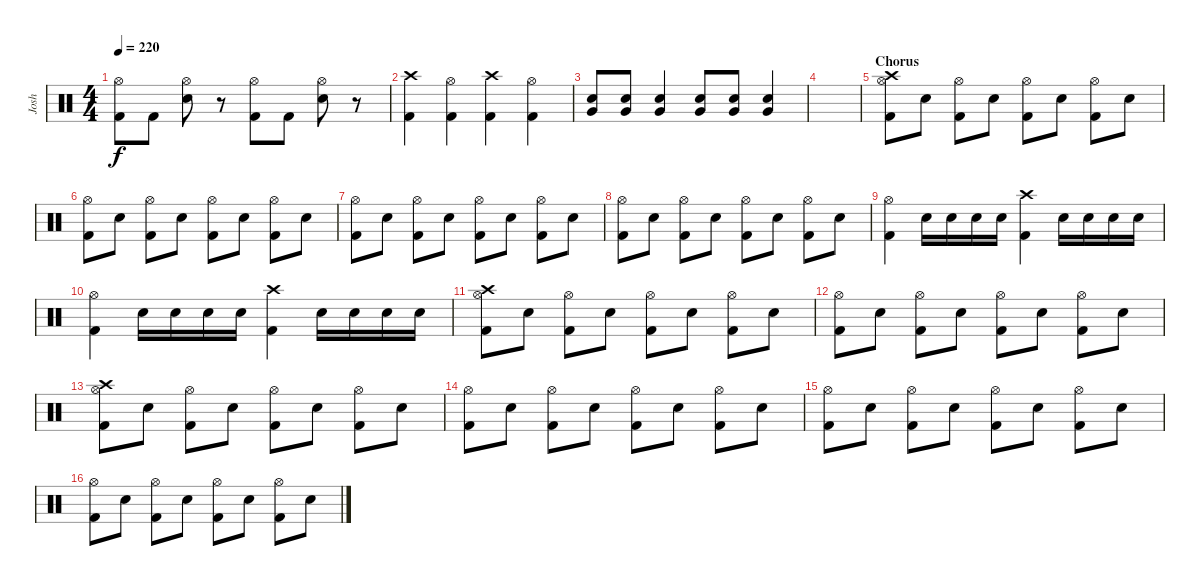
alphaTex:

\track ("Josh" "Josh") {instrument percussion}
\staff {score}
\articulation defaults
\ts (4 4)
\tempo 220
\clef neutral
\ks c
("Hi-Hat (open)" "Kick (hit) 2").8{dy f} "Kick (hit) 2".8 ("Hi-Hat (open)" "Snare (hit) 2").8 r.8 ("Hi-Hat (open)" "Kick (hit) 2").8 "Kick (hit) 2".8 ("Hi-Hat (open)" "Snare (hit) 2").8 r.8 |
("Crash high (hit)" "Kick (hit) 2").4 ("Hi-Hat (open)" "Kick (hit) 2").4 ("Crash high (hit)" "Kick (hit) 2").4 ("Hi-Hat (open)" "Kick (hit) 2").4 |
("Snare (hit) 2" "Very Low Tom (hit)").8 ("Snare (hit) 2" "Very Low Tom (hit)").8 ("Snare (hit) 2" "Very Low Tom (hit)").4 ("Snare (hit) 2" "Very Low Tom (hit)").8 ("Snare (hit) 2" "Very Low Tom (hit)").8 ("Snare (hit) 2" "Very Low Tom (hit)").4 |
|
\section ("" "Chorus")
("Crash high (hit)" "Hi-Hat (open)" "Kick (hit) 2").8 "Snare (hit) 2".8 ("Hi-Hat (open)" "Kick (hit) 2").8 "Snare (hit) 2".8 ("Hi-Hat (open)" "Kick (hit) 2").8 "Snare (hit) 2".8 ("Hi-Hat (open)" "Kick (hit) 2").8 "Snare (hit) 2".8 |
("Hi-Hat (open)" "Kick (hit) 2").8 "Snare (hit) 2".8 ("Hi-Hat (open)" "Kick (hit) 2").8 "Snare (hit) 2".8 ("Hi-Hat (open)" "Kick (hit) 2").8 "Snare (hit) 2".8 ("Hi-Hat (open)" "Kick (hit) 2").8 "Snare (hit) 2".8 |
("Hi-Hat (open)" "Kick (hit) 2").8 "Snare (hit) 2".8 ("Hi-Hat (open)" "Kick (hit) 2").8 "Snare (hit) 2".8 ("Hi-Hat (open)" "Kick (hit) 2").8 "Snare (hit) 2".8 ("Hi-Hat (open)" "Kick (hit) 2").8 "Snare (hit) 2".8 |
("Hi-Hat (open)" "Kick (hit) 2").8 "Snare (hit) 2".8 ("Hi-Hat (open)" "Kick (hit) 2").8 "Snare (hit) 2".8 ("Hi-Hat (open)" "Kick (hit) 2").8 "Snare (hit) 2".8 ("Hi-Hat (open)" "Kick (hit) 2").8 "Snare (hit) 2".8 |
("Hi-Hat (open)" "Kick (hit) 2").4 "Snare (hit) 2".16 "Snare (hit) 2".16 "Snare (hit) 2".16 "Snare (hit) 2".16 ("Crash high (hit)" "Kick (hit) 2").4 "Snare (hit) 2".16 "Snare (hit) 2".16 "Snare (hit) 2".16 "Snare (hit) 2".16 |
("Hi-Hat (open)" "Kick (hit) 2").4 "Snare (hit) 2".16 "Snare (hit) 2".16 "Snare (hit) 2".16 "Snare (hit) 2".16 ("Crash high (hit)" "Kick (hit) 2").4 "Snare (hit) 2".16 "Snare (hit) 2".16 "Snare (hit) 2".16 "Snare (hit) 2".16 |
("Crash high (hit)" "Hi-Hat (open)" "Kick (hit) 2").8 "Snare (hit) 2".8 ("Hi-Hat (open)" "Kick (hit) 2").8 "Snare (hit) 2".8 ("Hi-Hat (open)" "Kick (hit) 2").8 "Snare (hit) 2".8 ("Hi-Hat (open)" "Kick (hit) 2").8 "Snare (hit) 2".8 |
("Hi-Hat (open)" "Kick (hit) 2").8 "Snare (hit) 2".8 ("Hi-Hat (open)" "Kick (hit) 2").8 "Snare (hit) 2".8 ("Hi-Hat (open)" "Kick (hit) 2").8 "Snare (hit) 2".8 ("Hi-Hat (open)" "Kick (hit) 2").8 "Snare (hit) 2".8 |
("Crash high (hit)" "Hi-Hat (open)" "Kick (hit) 2").8 "Snare (hit) 2".8 ("Hi-Hat (open)" "Kick (hit) 2").8 "Snare (hit) 2".8 ("Hi-Hat (open)" "Kick (hit) 2").8 "Snare (hit) 2".8 ("Hi-Hat (open)" "Kick (hit) 2").8 "Snare (hit) 2".8 |
("Hi-Hat (open)" "Kick (hit) 2").8 "Snare (hit) 2".8 ("Hi-Hat (open)" "Kick (hit) 2").8 "Snare (hit) 2".8 ("Hi-Hat (open)" "Kick (hit) 2").8 "Snare (hit) 2".8 ("Hi-Hat (open)" "Kick (hit) 2").8 "Snare (hit) 2".8 |
("Hi-Hat (open)" "Kick (hit) 2").8 "Snare (hit) 2".8 ("Hi-Hat (open)" "Kick (hit) 2").8 "Snare (hit) 2".8 ("Hi-Hat (open)" "Kick (hit) 2").8 "Snare (hit) 2".8 ("Hi-Hat (open)" "Kick (hit) 2").8 "Snare (hit) 2".8 |
("Hi-Hat (open)" "Kick (hit) 2").8 "Snare (hit) 2".8 ("Hi-Hat (open)" "Kick (hit) 2").8 "Snare (hit) 2".8 ("Hi-Hat (open)" "Kick (hit) 2").8 "Snare (hit) 2".8 ("Hi-Hat (open)" "Kick (hit) 2").8 "Snare (hit) 2".8
